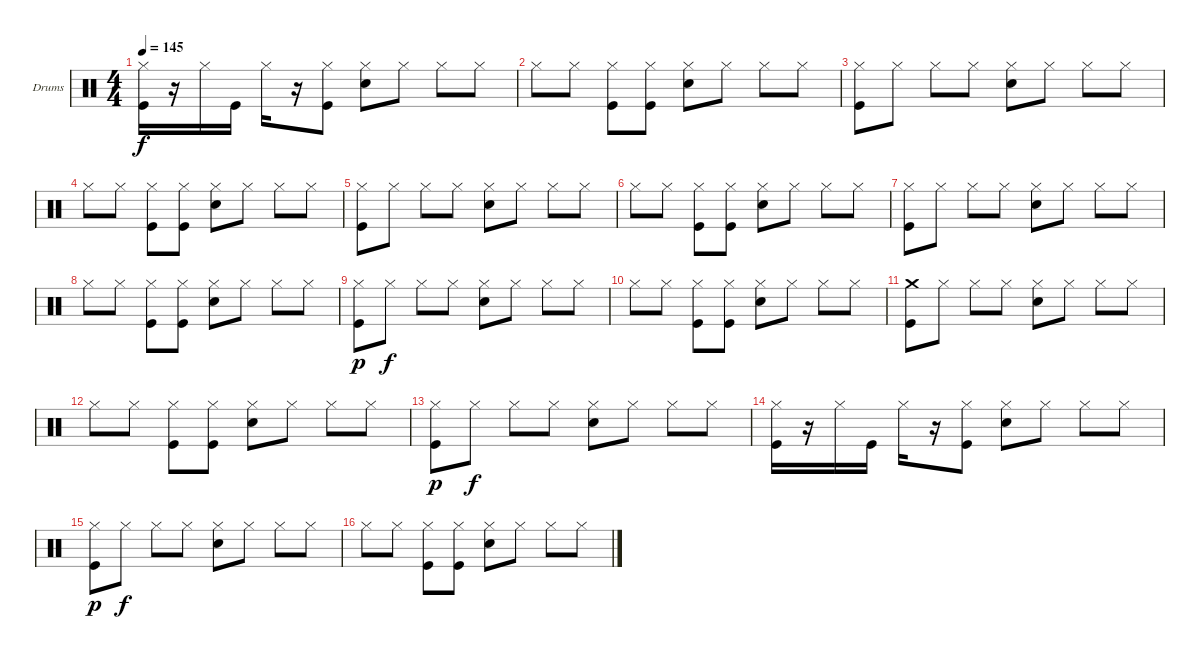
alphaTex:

\bracketExtendMode groupsimilarinstruments
\firstSystemTrackNameOrientation horizontal
\otherSystemsTrackNameOrientation horizontal
\track ("Drumkit" "Drums") {instrument percussion}
\staff {score}
\articulation defaults
\ts (4 4)
\tempo 145
\clef neutral
\ks c
("Hi-Hat (closed)" "Kick (hit)").16{dy f} r.16 "Hi-Hat (closed)".16 "Kick (hit)".16 "Hi-Hat (closed)".16 r.16 ("Hi-Hat (closed)" "Kick (hit)").8 ("Hi-Hat (closed)" "Snare (hit) 2").8 "Hi-Hat (closed)".8 "Hi-Hat (closed)".8 "Hi-Hat (closed)".8 |
"Hi-Hat (closed)".8 "Hi-Hat (closed)".8 ("Hi-Hat (closed)" "Kick (hit)").8 ("Hi-Hat (closed)" "Kick (hit)").8 ("Hi-Hat (closed)" "Snare (hit) 2").8 "Hi-Hat (closed)".8 "Hi-Hat (closed)".8 "Hi-Hat (closed)".8 |
("Hi-Hat (closed)" "Kick (hit)").8 "Hi-Hat (closed)".8 "Hi-Hat (closed)".8 "Hi-Hat (closed)".8 ("Hi-Hat (closed)" "Snare (hit) 2").8 "Hi-Hat (closed)".8 "Hi-Hat (closed)".8 "Hi-Hat (closed)".8 |
"Hi-Hat (closed)".8 "Hi-Hat (closed)".8 ("Hi-Hat (closed)" "Kick (hit)").8 ("Hi-Hat (closed)" "Kick (hit)").8 ("Hi-Hat (closed)" "Snare (hit) 2").8 "Hi-Hat (closed)".8 "Hi-Hat (closed)".8 "Hi-Hat (closed)".8 |
("Hi-Hat (closed)" "Kick (hit)").8 "Hi-Hat (closed)".8 "Hi-Hat (closed)".8 "Hi-Hat (closed)".8 ("Hi-Hat (closed)" "Snare (hit) 2").8 "Hi-Hat (closed)".8 "Hi-Hat (closed)".8 "Hi-Hat (closed)".8 |
"Hi-Hat (closed)".8 "Hi-Hat (closed)".8 ("Hi-Hat (closed)" "Kick (hit)").8 ("Hi-Hat (closed)" "Kick (hit)").8 ("Hi-Hat (closed)" "Snare (hit) 2").8 "Hi-Hat (closed)".8 "Hi-Hat (closed)".8 "Hi-Hat (closed)".8 |
("Hi-Hat (closed)" "Kick (hit)").8 "Hi-Hat (closed)".8 "Hi-Hat (closed)".8 "Hi-Hat (closed)".8 ("Hi-Hat (closed)" "Snare (hit) 2").8 "Hi-Hat (closed)".8 "Hi-Hat (closed)".8 "Hi-Hat (closed)".8 |
"Hi-Hat (closed)".8 "Hi-Hat (closed)".8 ("Hi-Hat (closed)" "Kick (hit)").8 ("Hi-Hat (closed)" "Kick (hit)").8 ("Hi-Hat (closed)" "Snare (hit) 2").8 "Hi-Hat (closed)".8 "Hi-Hat (closed)".8 "Hi-Hat (closed)".8 |
("Hi-Hat (closed)" "Kick (hit)").8{dy p} "Hi-Hat (closed)".8{dy f} "Hi-Hat (closed)".8 "Hi-Hat (closed)".8 ("Hi-Hat (closed)" "Snare (hit) 2").8 "Hi-Hat (closed)".8 "Hi-Hat (closed)".8 "Hi-Hat (closed)".8 |
"Hi-Hat (closed)".8 "Hi-Hat (closed)".8 ("Hi-Hat (closed)" "Kick (hit)").8 ("Hi-Hat (closed)" "Kick (hit)").8 ("Hi-Hat (closed)" "Snare (hit) 2").8 "Hi-Hat (closed)".8 "Hi-Hat (closed)".8 "Hi-Hat (closed)".8 |
("Crash medium (hit)" "Kick (hit)").8 "Hi-Hat (closed)".8 "Hi-Hat (closed)".8 "Hi-Hat (closed)".8 ("Hi-Hat (closed)" "Snare (hit) 2").8 "Hi-Hat (closed)".8 "Hi-Hat (closed)".8 "Hi-Hat (closed)".8 |
"Hi-Hat (closed)".8 "Hi-Hat (closed)".8 ("Hi-Hat (closed)" "Kick (hit)").8 ("Hi-Hat (closed)" "Kick (hit)").8 ("Hi-Hat (closed)" "Snare (hit) 2").8 "Hi-Hat (closed)".8 "Hi-Hat (closed)".8 "Hi-Hat (closed)".8 |
("Hi-Hat (closed)" "Kick (hit)").8{dy p} "Hi-Hat (closed)".8{dy f} "Hi-Hat (closed)".8 "Hi-Hat (closed)".8 ("Hi-Hat (closed)" "Snare (hit) 2").8 "Hi-Hat (closed)".8 "Hi-Hat (closed)".8 "Hi-Hat (closed)".8 |
("Hi-Hat (closed)" "Kick (hit)").16 r.16 "Hi-Hat (closed)".16 "Kick (hit)".16 "Hi-Hat (closed)".16 r.16 ("Hi-Hat (closed)" "Kick (hit)").8 ("Hi-Hat (closed)" "Snare (hit) 2").8 "Hi-Hat (closed)".8 "Hi-Hat (closed)".8 "Hi-Hat (closed)".8 |
("Hi-Hat (closed)" "Kick (hit)").8{dy p} "Hi-Hat (closed)".8{dy f} "Hi-Hat (closed)".8 "Hi-Hat (closed)".8 ("Hi-Hat (closed)" "Snare (hit) 2").8 "Hi-Hat (closed)".8 "Hi-Hat (closed)".8 "Hi-Hat (closed)".8 |
"Hi-Hat (closed)".8 "Hi-Hat (closed)".8 ("Hi-Hat (closed)" "Kick (hit)").8 ("Hi-Hat (closed)" "Kick (hit)").8 ("Hi-Hat (closed)" "Snare (hit) 2").8 "Hi-Hat (closed)".8 "Hi-Hat (closed)".8 "Hi-Hat (closed)".8
